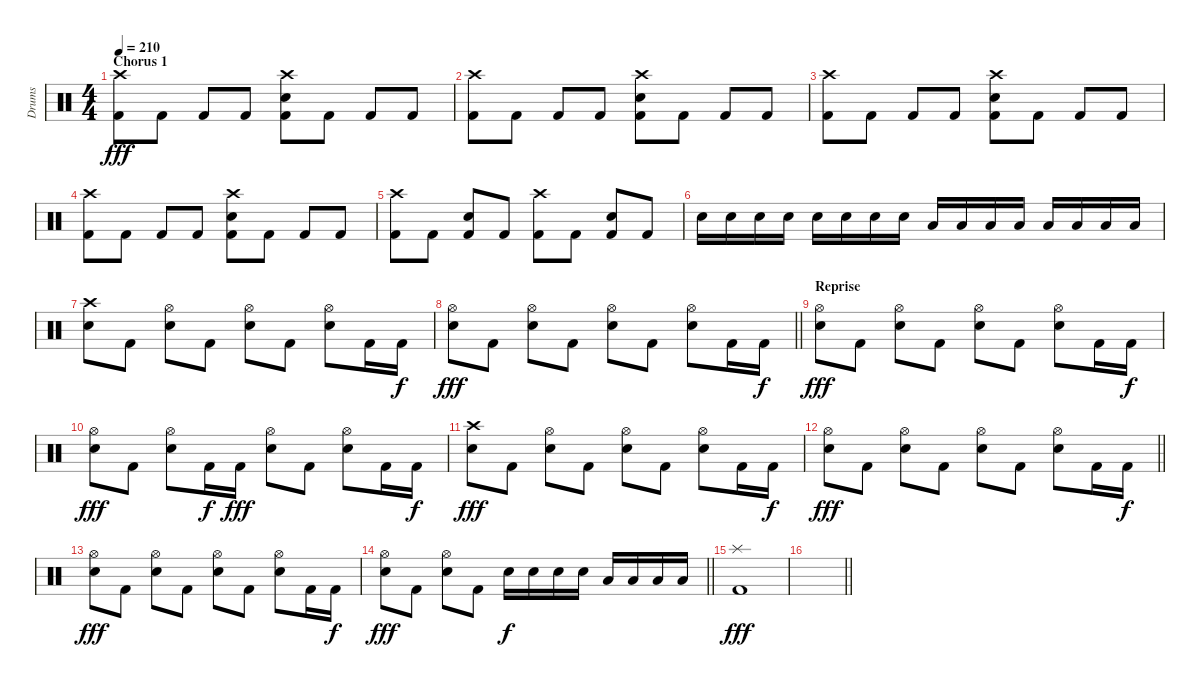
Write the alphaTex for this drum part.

\track ("Drums" "Drums") {instrument percussion}
\staff {score}
\articulation defaults
\ts (4 4)
\section ("" "Chorus 1")
\tempo 210
\clef neutral
\ks c
("Crash high (hit)" "Kick (hit) 2").8{dy fff} "Kick (hit) 2".8 "Kick (hit) 2".8 "Kick (hit) 2".8 ("Crash high (hit)" "Electric Snare (hit)" "Kick (hit) 2").8 "Kick (hit) 2".8 "Kick (hit) 2".8 "Kick (hit) 2".8 |
("Crash high (hit)" "Kick (hit) 2").8 "Kick (hit) 2".8 "Kick (hit) 2".8 "Kick (hit) 2".8 ("Crash high (hit)" "Electric Snare (hit)" "Kick (hit) 2").8 "Kick (hit) 2".8 "Kick (hit) 2".8 "Kick (hit) 2".8 |
("Crash high (hit)" "Kick (hit) 2").8 "Kick (hit) 2".8 "Kick (hit) 2".8 "Kick (hit) 2".8 ("Crash high (hit)" "Electric Snare (hit)" "Kick (hit) 2").8 "Kick (hit) 2".8 "Kick (hit) 2".8 "Kick (hit) 2".8 |
("Crash high (hit)" "Kick (hit) 2").8 "Kick (hit) 2".8 "Kick (hit) 2".8 "Kick (hit) 2".8 ("Crash high (hit)" "Electric Snare (hit)" "Kick (hit) 2").8 "Kick (hit) 2".8 "Kick (hit) 2".8 "Kick (hit) 2".8 |
("Crash high (hit)" "Kick (hit) 2").8 "Kick (hit) 2".8 ("Electric Snare (hit)" "Kick (hit) 2").8 "Kick (hit) 2".8 ("Crash high (hit)" "Kick (hit) 2").8 "Kick (hit) 2".8 ("Electric Snare (hit)" "Kick (hit) 2").8 "Kick (hit) 2".8 |
"Electric Snare (hit)".16 "Electric Snare (hit)".16 "Electric Snare (hit)".16 "Electric Snare (hit)".16 "Electric Snare (hit)".16 "Electric Snare (hit)".16 "Electric Snare (hit)".16 "Electric Snare (hit)".16 "Low Tom (hit)".16 "Low Tom (hit)".16 "Low Tom (hit)".16 "Low Tom (hit)".16 "Low Tom (hit)".16 "Low Tom (hit)".16 "Low Tom (hit)".16 "Low Tom (hit)".16 |
("Crash high (hit)" "Electric Snare (hit)").8 "Kick (hit) 2".8 ("Hi-Hat (open)" "Electric Snare (hit)").8 "Kick (hit) 2".8 ("Hi-Hat (open)" "Electric Snare (hit)").8 "Kick (hit) 2".8 ("Hi-Hat (open)" "Electric Snare (hit)").8 "Kick (hit) 2".16 "Kick (hit) 2".16{dy f} |
\barLineRight lightlight
("Hi-Hat (open)" "Electric Snare (hit)").8{dy fff} "Kick (hit) 2".8 ("Hi-Hat (open)" "Electric Snare (hit)").8 "Kick (hit) 2".8 ("Hi-Hat (open)" "Electric Snare (hit)").8 "Kick (hit) 2".8 ("Hi-Hat (open)" "Electric Snare (hit)").8 "Kick (hit) 2".16 "Kick (hit) 2".16{dy f} |
\section ("" "Reprise")
("Hi-Hat (open)" "Electric Snare (hit)").8{dy fff} "Kick (hit) 2".8 ("Hi-Hat (open)" "Electric Snare (hit)").8 "Kick (hit) 2".8 ("Hi-Hat (open)" "Electric Snare (hit)").8 "Kick (hit) 2".8 ("Hi-Hat (open)" "Electric Snare (hit)").8 "Kick (hit) 2".16 "Kick (hit) 2".16{dy f} |
("Hi-Hat (open)" "Electric Snare (hit)").8{dy fff} "Kick (hit) 2".8 ("Hi-Hat (open)" "Electric Snare (hit)").8 "Kick (hit) 2".16{dy f} "Kick (hit) 2".16{dy fff} ("Hi-Hat (open)" "Electric Snare (hit)").8 "Kick (hit) 2".8 ("Hi-Hat (open)" "Electric Snare (hit)").8 "Kick (hit) 2".16 "Kick (hit) 2".16{dy f} |
("Crash high (hit)" "Electric Snare (hit)").8{dy fff} "Kick (hit) 2".8 ("Hi-Hat (open)" "Electric Snare (hit)").8 "Kick (hit) 2".8 ("Hi-Hat (open)" "Electric Snare (hit)").8 "Kick (hit) 2".8 ("Hi-Hat (open)" "Electric Snare (hit)").8 "Kick (hit) 2".16 "Kick (hit) 2".16{dy f} |
\barLineRight lightlight
("Hi-Hat (open)" "Electric Snare (hit)").8{dy fff} "Kick (hit) 2".8 ("Hi-Hat (open)" "Electric Snare (hit)").8 "Kick (hit) 2".8 ("Hi-Hat (open)" "Electric Snare (hit)").8 "Kick (hit) 2".8 ("Hi-Hat (open)" "Electric Snare (hit)").8 "Kick (hit) 2".16 "Kick (hit) 2".16{dy f} |
("Hi-Hat (open)" "Electric Snare (hit)").8{dy fff} "Kick (hit) 2".8 ("Hi-Hat (open)" "Electric Snare (hit)").8 "Kick (hit) 2".8 ("Hi-Hat (open)" "Electric Snare (hit)").8 "Kick (hit) 2".8 ("Hi-Hat (open)" "Electric Snare (hit)").8 "Kick (hit) 2".16 "Kick (hit) 2".16{dy f} |
\barLineRight lightlight
("Hi-Hat (open)" "Electric Snare (hit)").8{dy fff} "Kick (hit) 2".8 ("Hi-Hat (open)" "Electric Snare (hit)").8 "Kick (hit) 2".8 "Electric Snare (hit)".16{dy f} "Electric Snare (hit)".16 "Electric Snare (hit)".16 "Electric Snare (hit)".16 "Low Tom (hit)".16 "Low Tom (hit)".16 "Low Tom (hit)".16 "Low Tom (hit)".16 |
("Splash (hit)" "Kick (hit) 2").1{dy fff} |
\barLineRight lightlight
